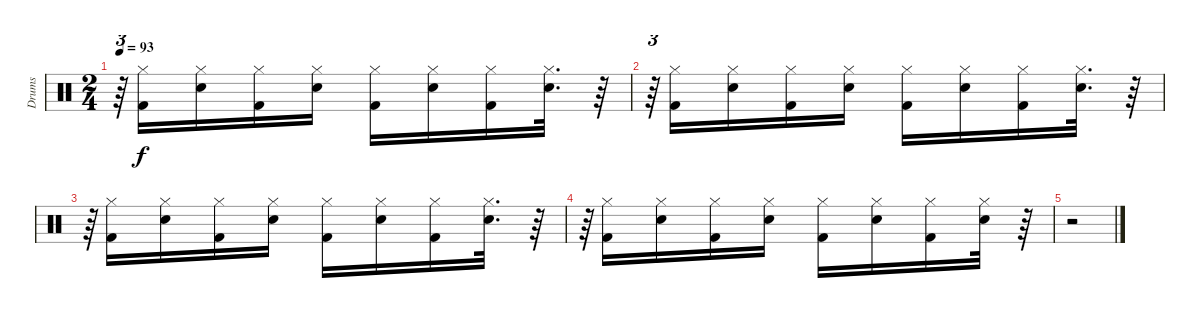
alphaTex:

\track ("Drums" "Drums") {instrument percussion}
\staff {score}
\articulation defaults
\ts (2 4)
\tempo 93
\clef neutral
\ks c
r.64{tu (3 2) dy f} ("Kick (hit) 2" "Hi-Hat (closed)").16 ("Snare (hit) 2" "Hi-Hat (closed)").16 ("Kick (hit) 2" "Hi-Hat (closed)").16 ("Snare (hit) 2" "Hi-Hat (closed)").16 ("Hi-Hat (closed)" "Kick (hit) 2").16 ("Hi-Hat (closed)" "Snare (hit) 2").16 ("Hi-Hat (closed)" "Kick (hit) 2").16 ("Hi-Hat (closed)" "Snare (hit) 2").32{d} r.64 |
r.64{tu (3 2)} ("Kick (hit) 2" "Hi-Hat (closed)").16 ("Snare (hit) 2" "Hi-Hat (closed)").16 ("Kick (hit) 2" "Hi-Hat (closed)").16 ("Snare (hit) 2" "Hi-Hat (closed)").16 ("Hi-Hat (closed)" "Kick (hit) 2").16 ("Hi-Hat (closed)" "Snare (hit) 2").16 ("Hi-Hat (closed)" "Kick (hit) 2").16 ("Hi-Hat (closed)" "Snare (hit) 2").32{d} r.64 |
r.64{tu (3 2)} ("Kick (hit) 2" "Hi-Hat (closed)").16 ("Snare (hit) 2" "Hi-Hat (closed)").16 ("Kick (hit) 2" "Hi-Hat (closed)").16 ("Snare (hit) 2" "Hi-Hat (closed)").16 ("Hi-Hat (closed)" "Kick (hit) 2").16 ("Hi-Hat (closed)" "Snare (hit) 2").16 ("Hi-Hat (closed)" "Kick (hit) 2").16 ("Hi-Hat (closed)" "Snare (hit) 2").32{d} r.64 |
r.64{tu (3 2)} ("Kick (hit) 2" "Hi-Hat (closed)").16 ("Snare (hit) 2" "Hi-Hat (closed)").16 ("Kick (hit) 2" "Hi-Hat (closed)").16 ("Snare (hit) 2" "Hi-Hat (closed)").16 ("Hi-Hat (closed)" "Kick (hit) 2").16 ("Hi-Hat (closed)" "Snare (hit) 2").16 ("Hi-Hat (closed)" "Kick (hit) 2").16 ("Hi-Hat (closed)" "Snare (hit) 2").32 r.64 |
r.2
